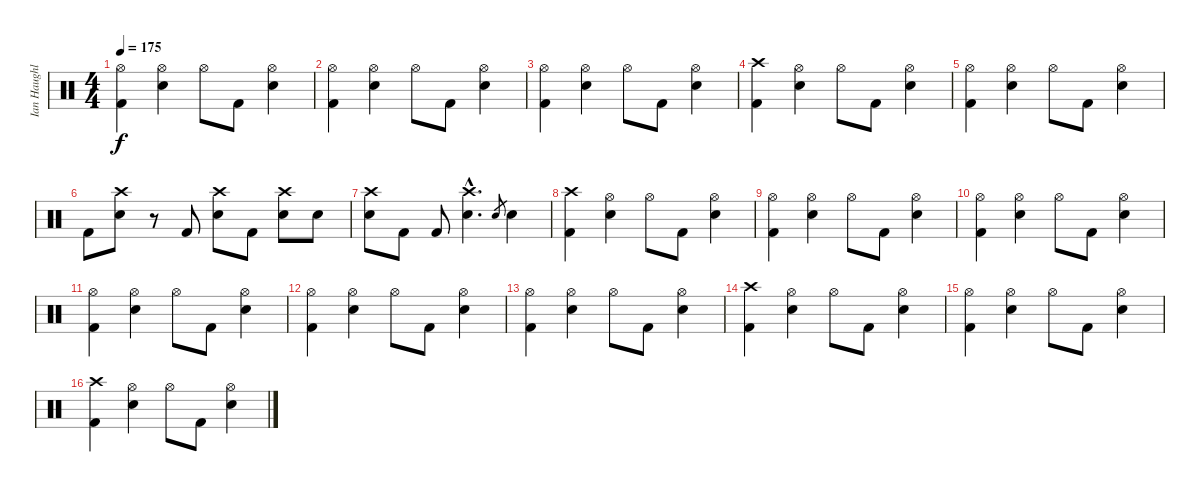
\track ("Ian Haughland" "Ian Haughl") {instrument percussion}
\staff {score}
\articulation defaults
\ts (4 4)
\tempo 175
\clef neutral
\ks c
("Hi-Hat (open)" "Kick (hit) 2").4{dy f} ("Hi-Hat (open)" "Snare (hit) 2").4 "Hi-Hat (open)".8 "Kick (hit) 2".8 ("Hi-Hat (open)" "Snare (hit) 2").4 |
("Hi-Hat (open)" "Kick (hit) 2").4 ("Hi-Hat (open)" "Snare (hit) 2").4 "Hi-Hat (open)".8 "Kick (hit) 2".8 ("Hi-Hat (open)" "Snare (hit) 2").4 |
("Hi-Hat (open)" "Kick (hit) 2").4 ("Hi-Hat (open)" "Snare (hit) 2").4 "Hi-Hat (open)".8 "Kick (hit) 2".8 ("Hi-Hat (open)" "Snare (hit) 2").4 |
("Crash high (hit)" "Kick (hit) 2").4 ("Hi-Hat (open)" "Snare (hit) 2").4 "Hi-Hat (open)".8 "Kick (hit) 2".8 ("Hi-Hat (open)" "Snare (hit) 2").4 |
("Hi-Hat (open)" "Kick (hit) 2").4 ("Hi-Hat (open)" "Snare (hit) 2").4 "Hi-Hat (open)".8 "Kick (hit) 2".8 ("Hi-Hat (open)" "Snare (hit) 2").4 |
"Kick (hit) 2".8 ("Crash high (hit)" "Snare (hit) 2").8 r.8 "Kick (hit) 2".8 ("Crash high (hit)" "Snare (hit) 2").8 "Kick (hit) 2".8 ("Crash high (hit)" "Snare (hit) 2").8 "Snare (hit) 2".8 |
("Crash high (hit)" "Snare (hit) 2").8 "Kick (hit) 2".8 "Kick (hit) 2".8 ("Crash high (hit)"{hac} "Snare (hit) 2"{hac}).4{d} "Snare (hit) 2".8{gr} "Snare (hit) 2".4 |
("Crash high (hit)" "Kick (hit) 2").4 ("Hi-Hat (open)" "Snare (hit) 2").4 "Hi-Hat (open)".8 "Kick (hit) 2".8 ("Hi-Hat (open)" "Snare (hit) 2").4 |
("Hi-Hat (open)" "Kick (hit) 2").4 ("Hi-Hat (open)" "Snare (hit) 2").4 "Hi-Hat (open)".8 "Kick (hit) 2".8 ("Hi-Hat (open)" "Snare (hit) 2").4 |
("Hi-Hat (open)" "Kick (hit) 2").4 ("Hi-Hat (open)" "Snare (hit) 2").4 "Hi-Hat (open)".8 "Kick (hit) 2".8 ("Hi-Hat (open)" "Snare (hit) 2").4 |
("Hi-Hat (open)" "Kick (hit) 2").4 ("Hi-Hat (open)" "Snare (hit) 2").4 "Hi-Hat (open)".8 "Kick (hit) 2".8 ("Hi-Hat (open)" "Snare (hit) 2").4 |
("Hi-Hat (open)" "Kick (hit) 2").4 ("Hi-Hat (open)" "Snare (hit) 2").4 "Hi-Hat (open)".8 "Kick (hit) 2".8 ("Hi-Hat (open)" "Snare (hit) 2").4 |
("Hi-Hat (open)" "Kick (hit) 2").4 ("Hi-Hat (open)" "Snare (hit) 2").4 "Hi-Hat (open)".8 "Kick (hit) 2".8 ("Hi-Hat (open)" "Snare (hit) 2").4 |
("Crash high (hit)" "Kick (hit) 2").4 ("Hi-Hat (open)" "Snare (hit) 2").4 "Hi-Hat (open)".8 "Kick (hit) 2".8 ("Hi-Hat (open)" "Snare (hit) 2").4 |
("Hi-Hat (open)" "Kick (hit) 2").4 ("Hi-Hat (open)" "Snare (hit) 2").4 "Hi-Hat (open)".8 "Kick (hit) 2".8 ("Hi-Hat (open)" "Snare (hit) 2").4 |
("Crash high (hit)" "Kick (hit) 2").4 ("Hi-Hat (open)" "Snare (hit) 2").4 "Hi-Hat (open)".8 "Kick (hit) 2".8 ("Hi-Hat (open)" "Snare (hit) 2").4
